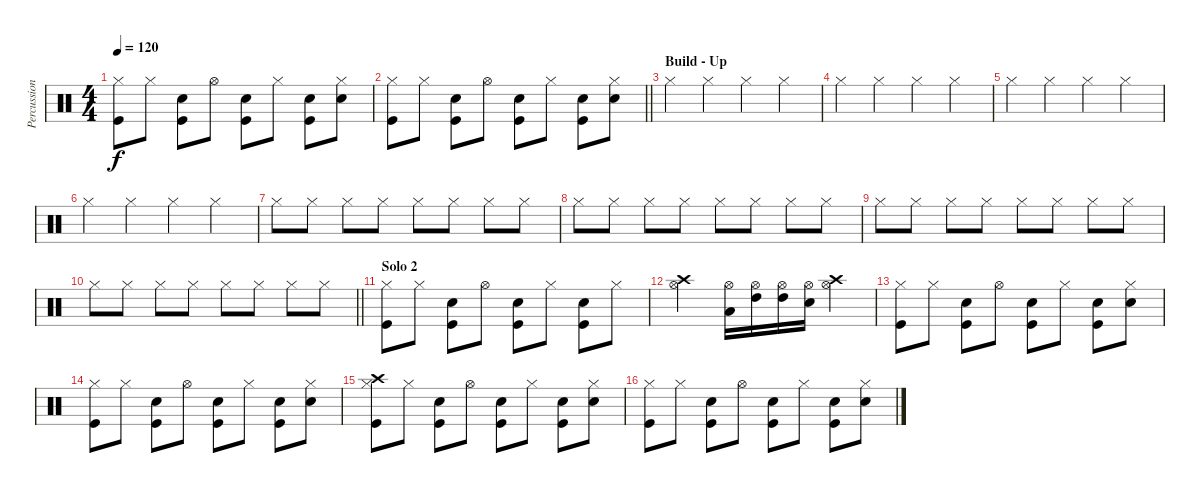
\track ("Percussion" "Percussion") {instrument percussion}
\staff {score}
\articulation defaults
\ts (4 4)
\tempo 120
\clef neutral
\ks c
("Hi-Hat (closed)" "Kick (hit)").8{dy f} "Hi-Hat (closed)".8 ("Electric Snare (hit)" "Kick (hit)").8 "Hi-Hat (open)".8 ("Electric Snare (hit)" "Kick (hit)").8 "Hi-Hat (closed)".8 ("Electric Snare (hit)" "Kick (hit)").8 ("Hi-Hat (closed)" "Snare (hit) 2").8 |
\barLineRight lightlight
("Hi-Hat (closed)" "Kick (hit)").8 "Hi-Hat (closed)".8 ("Electric Snare (hit)" "Kick (hit)").8 "Hi-Hat (open)".8 ("Electric Snare (hit)" "Kick (hit)").8 "Hi-Hat (closed)".8 ("Electric Snare (hit)" "Kick (hit)").8 ("Hi-Hat (closed)" "Snare (hit) 2").8 |
\section ("" "Build - Up")
"Hi-Hat (closed)".4 "Hi-Hat (closed)".4 "Hi-Hat (closed)".4 "Hi-Hat (closed)".4 |
"Hi-Hat (closed)".4 "Hi-Hat (closed)".4 "Hi-Hat (closed)".4 "Hi-Hat (closed)".4 |
"Hi-Hat (closed)".4 "Hi-Hat (closed)".4 "Hi-Hat (closed)".4 "Hi-Hat (closed)".4 |
"Hi-Hat (closed)".4 "Hi-Hat (closed)".4 "Hi-Hat (closed)".4 "Hi-Hat (closed)".4 |
"Hi-Hat (closed)".8 "Hi-Hat (closed)".8 "Hi-Hat (closed)".8 "Hi-Hat (closed)".8 "Hi-Hat (closed)".8 "Hi-Hat (closed)".8 "Hi-Hat (closed)".8 "Hi-Hat (closed)".8 |
"Hi-Hat (closed)".8 "Hi-Hat (closed)".8 "Hi-Hat (closed)".8 "Hi-Hat (closed)".8 "Hi-Hat (closed)".8 "Hi-Hat (closed)".8 "Hi-Hat (closed)".8 "Hi-Hat (closed)".8 |
"Hi-Hat (closed)".8 "Hi-Hat (closed)".8 "Hi-Hat (closed)".8 "Hi-Hat (closed)".8 "Hi-Hat (closed)".8 "Hi-Hat (closed)".8 "Hi-Hat (closed)".8 "Hi-Hat (closed)".8 |
\barLineRight lightlight "Hi-Hat (closed)".8 "Hi-Hat (closed)".8 "Hi-Hat (closed)".8 "Hi-Hat (closed)".8 "Hi-Hat (closed)".8 "Hi-Hat (closed)".8 "Hi-Hat (closed)".8 "Hi-Hat (closed)".8
|
\section ("" "Solo 2")
("Hi-Hat (closed)" "Kick (hit)").8 "Hi-Hat (closed)".8 ("Electric Snare (hit)" "Kick (hit)").8 "Hi-Hat (open)".8 ("Electric Snare (hit)" "Kick (hit)").8 "Hi-Hat (closed)".8 ("Electric Snare (hit)" "Kick (hit)").8 "Hi-Hat (closed)".8 |
("Crash high (hit)" "Hi-Hat (open)").2 ("Hi-Hat (open)" "Low Tom (hit)").16 ("Hi-Hat (open)" "High Tom (hit)").16 ("Hi-Hat (open)" "High Tom (hit)").16 ("Hi-Hat (open)" "Snare (hit) 2").16 ("Crash high (hit)" "Hi-Hat (open)").4 |
("Hi-Hat (closed)" "Kick (hit)").8 "Hi-Hat (closed)".8 ("Electric Snare (hit)" "Kick (hit)").8 "Hi-Hat (open)".8 ("Electric Snare (hit)" "Kick (hit)").8 "Hi-Hat (closed)".8 ("Electric Snare (hit)" "Kick (hit)").8 ("Hi-Hat (closed)" "Snare (hit) 2").8 |
("Hi-Hat (closed)" "Kick (hit)").8 "Hi-Hat (closed)".8 ("Electric Snare (hit)" "Kick (hit)").8 "Hi-Hat (open)".8 ("Electric Snare (hit)" "Kick (hit)").8 "Hi-Hat (closed)".8 ("Electric Snare (hit)" "Kick (hit)").8 ("Hi-Hat (closed)" "Snare (hit) 2").8 |
("Hi-Hat (closed)" "Crash high (hit)" "Kick (hit)").8 "Hi-Hat (closed)".8 ("Electric Snare (hit)" "Kick (hit)").8 "Hi-Hat (open)".8 ("Electric Snare (hit)" "Kick (hit)").8 "Hi-Hat (closed)".8 ("Electric Snare (hit)" "Kick (hit)").8 ("Hi-Hat (closed)" "Snare (hit) 2").8 |
("Hi-Hat (closed)" "Kick (hit)").8 "Hi-Hat (closed)".8 ("Electric Snare (hit)" "Kick (hit)").8 "Hi-Hat (open)".8 ("Electric Snare (hit)" "Kick (hit)").8 "Hi-Hat (closed)".8 ("Electric Snare (hit)" "Kick (hit)").8 ("Hi-Hat (closed)" "Snare (hit) 2").8
